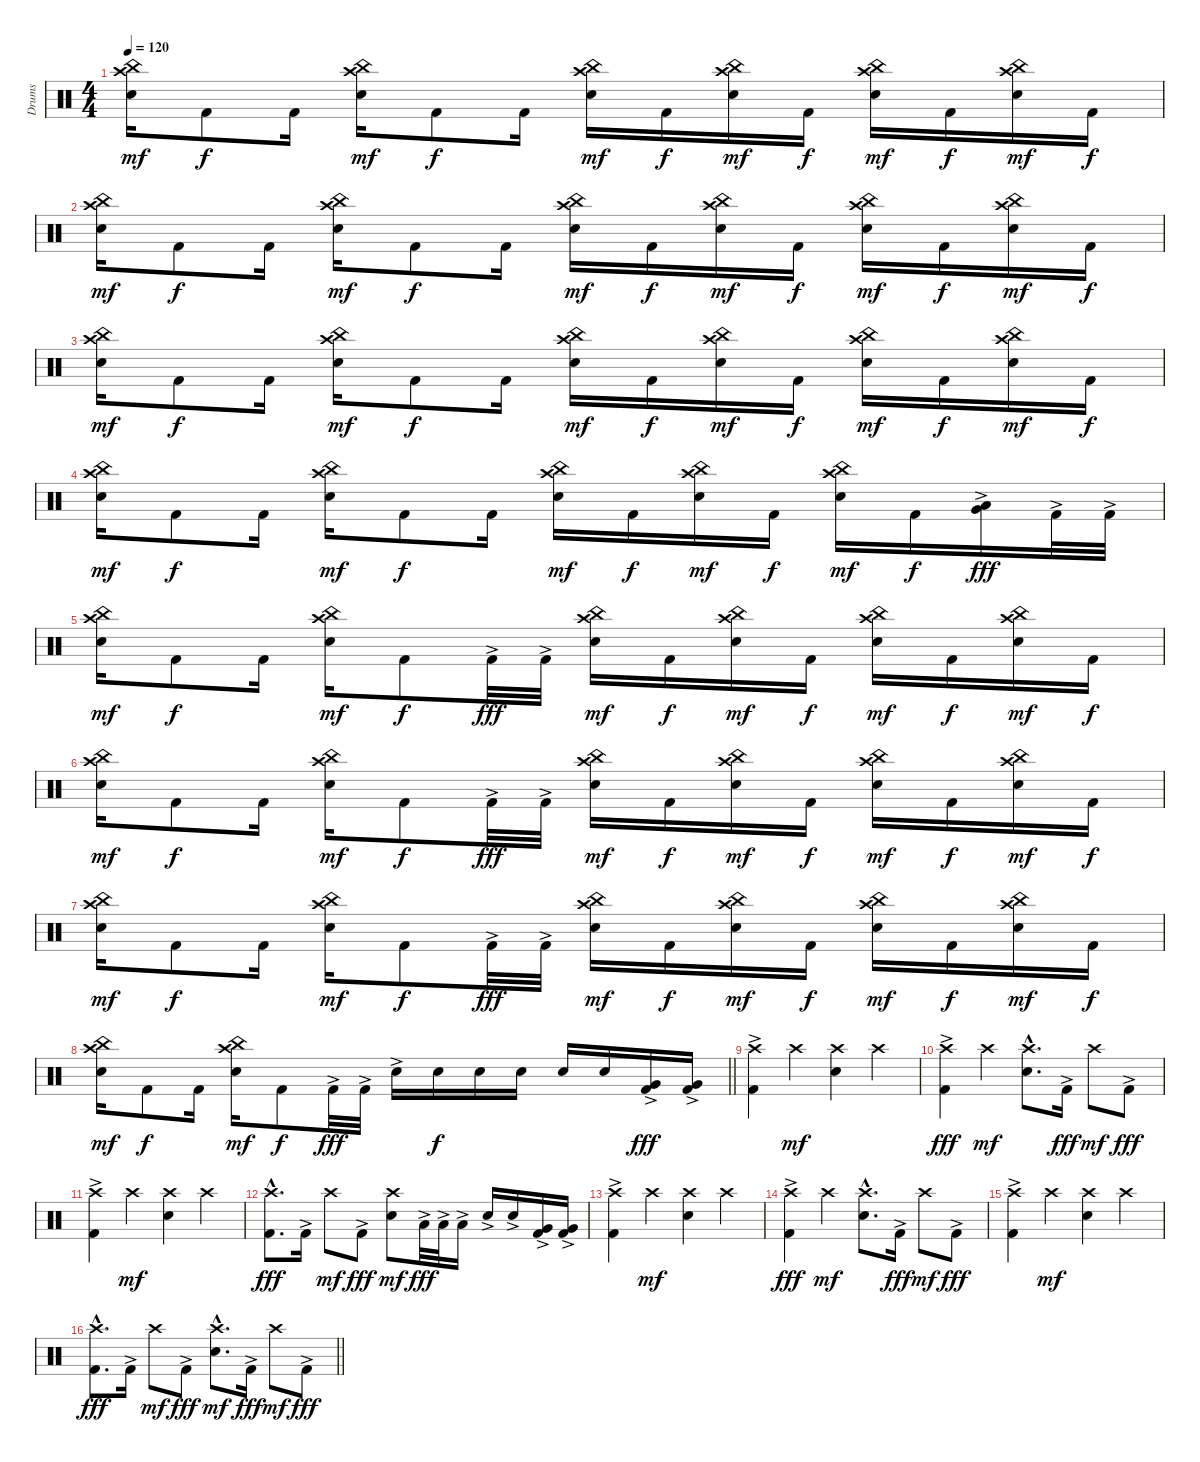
\track ("Drums" "Drums") {instrument percussion}
\staff {score}
\articulation defaults
\ts (4 4)
\tempo 120
\clef neutral
\ks c
("Crash high (hit)" "China (hit)" "Snare (hit) 2").16{dy mf} "Kick (hit) 2".8{dy f} "Kick (hit) 2".16 ("Crash high (hit)" "China (hit)" "Snare (hit) 2").16{dy mf} "Kick (hit) 2".8{dy f} "Kick (hit) 2".16 ("Crash high (hit)" "China (hit)" "Snare (hit) 2").16{dy mf} "Kick (hit) 2".16{dy f} ("Crash high (hit)" "China (hit)" "Snare (hit) 2").16{dy mf} "Kick (hit) 2".16{dy f} ("Crash high (hit)" "China (hit)" "Snare (hit) 2").16{dy mf} "Kick (hit) 2".16{dy f} ("Crash high (hit)" "China (hit)" "Snare (hit) 2").16{dy mf} "Kick (hit) 2".16{dy f} |
("Crash high (hit)" "China (hit)" "Snare (hit) 2").16{dy mf} "Kick (hit) 2".8{dy f} "Kick (hit) 2".16 ("Crash high (hit)" "China (hit)" "Snare (hit) 2").16{dy mf} "Kick (hit) 2".8{dy f} "Kick (hit) 2".16 ("Crash high (hit)" "China (hit)" "Snare (hit) 2").16{dy mf} "Kick (hit) 2".16{dy f} ("Crash high (hit)" "China (hit)" "Snare (hit) 2").16{dy mf} "Kick (hit) 2".16{dy f} ("Crash high (hit)" "China (hit)" "Snare (hit) 2").16{dy mf} "Kick (hit) 2".16{dy f} ("Crash high (hit)" "China (hit)" "Snare (hit) 2").16{dy mf} "Kick (hit) 2".16{dy f} |
("Crash high (hit)" "China (hit)" "Snare (hit) 2").16{dy mf} "Kick (hit) 2".8{dy f} "Kick (hit) 2".16 ("Crash high (hit)" "China (hit)" "Snare (hit) 2").16{dy mf} "Kick (hit) 2".8{dy f} "Kick (hit) 2".16 ("Crash high (hit)" "China (hit)" "Snare (hit) 2").16{dy mf} "Kick (hit) 2".16{dy f} ("Crash high (hit)" "China (hit)" "Snare (hit) 2").16{dy mf} "Kick (hit) 2".16{dy f} ("Crash high (hit)" "China (hit)" "Snare (hit) 2").16{dy mf} "Kick (hit) 2".16{dy f} ("Crash high (hit)" "China (hit)" "Snare (hit) 2").16{dy mf} "Kick (hit) 2".16{dy f} |
("Crash high (hit)" "China (hit)" "Snare (hit) 2").16{dy mf} "Kick (hit) 2".8{dy f} "Kick (hit) 2".16 ("Crash high (hit)" "China (hit)" "Snare (hit) 2").16{dy mf} "Kick (hit) 2".8{dy f} "Kick (hit) 2".16 ("Crash high (hit)" "China (hit)" "Snare (hit) 2").16{dy mf} "Kick (hit) 2".16{dy f} ("Crash high (hit)" "China (hit)" "Snare (hit) 2").16{dy mf} "Kick (hit) 2".16{dy f} ("Crash high (hit)" "China (hit)" "Snare (hit) 2").16{dy mf} "Kick (hit) 2".16{dy f} ("Low Tom (hit)"{ac} "Very Low Tom (hit)"{ac}).16{dy fff} "Kick (hit) 2"{ac}.32 "Kick (hit) 2"{ac}.32 |
("Crash high (hit)" "China (hit)" "Snare (hit) 2").16{dy mf} "Kick (hit) 2".8{dy f} "Kick (hit) 2".16 ("Crash high (hit)" "China (hit)" "Snare (hit) 2").16{dy mf} "Kick (hit) 2".8{dy f} "Kick (hit) 2"{ac}.32{dy fff} "Kick (hit) 2"{ac}.32 ("Crash high (hit)" "China (hit)" "Snare (hit) 2").16{dy mf} "Kick (hit) 2".16{dy f} ("Crash high (hit)" "China (hit)" "Snare (hit) 2").16{dy mf} "Kick (hit) 2".16{dy f} ("Crash high (hit)" "China (hit)" "Snare (hit) 2").16{dy mf} "Kick (hit) 2".16{dy f} ("Crash high (hit)" "China (hit)" "Snare (hit) 2").16{dy mf} "Kick (hit) 2".16{dy f} |
("Crash high (hit)" "China (hit)" "Snare (hit) 2").16{dy mf} "Kick (hit) 2".8{dy f} "Kick (hit) 2".16 ("Crash high (hit)" "China (hit)" "Snare (hit) 2").16{dy mf} "Kick (hit) 2".8{dy f} "Kick (hit) 2"{ac}.32{dy fff} "Kick (hit) 2"{ac}.32 ("Crash high (hit)" "China (hit)" "Snare (hit) 2").16{dy mf} "Kick (hit) 2".16{dy f} ("Crash high (hit)" "China (hit)" "Snare (hit) 2").16{dy mf} "Kick (hit) 2".16{dy f} ("Crash high (hit)" "China (hit)" "Snare (hit) 2").16{dy mf} "Kick (hit) 2".16{dy f} ("Crash high (hit)" "China (hit)" "Snare (hit) 2").16{dy mf} "Kick (hit) 2".16{dy f} |
("Crash high (hit)" "China (hit)" "Snare (hit) 2").16{dy mf} "Kick (hit) 2".8{dy f} "Kick (hit) 2".16 ("Crash high (hit)" "China (hit)" "Snare (hit) 2").16{dy mf} "Kick (hit) 2".8{dy f} "Kick (hit) 2"{ac}.32{dy fff} "Kick (hit) 2"{ac}.32 ("Crash high (hit)" "China (hit)" "Snare (hit) 2").16{dy mf} "Kick (hit) 2".16{dy f} ("Crash high (hit)" "China (hit)" "Snare (hit) 2").16{dy mf} "Kick (hit) 2".16{dy f} ("Crash high (hit)" "China (hit)" "Snare (hit) 2").16{dy mf} "Kick (hit) 2".16{dy f} ("Crash high (hit)" "China (hit)" "Snare (hit) 2").16{dy mf} "Kick (hit) 2".16{dy f} |
\barLineRight lightlight
("Crash high (hit)" "China (hit)" "Snare (hit) 2").16{dy mf} "Kick (hit) 2".8{dy f} "Kick (hit) 2".16 ("Crash high (hit)" "China (hit)" "Snare (hit) 2").16{dy mf} "Kick (hit) 2".8{dy f} "Kick (hit) 2"{ac}.32{dy fff} "Kick (hit) 2"{ac}.32 "Snare (hit) 2"{ac}.16 "Snare (hit) 2".16{dy f} "Snare (hit) 2".16 "Snare (hit) 2".16 "Snare (hit) 2".16 "Snare (hit) 2".16 ("Very Low Tom (hit)"{ac} "Kick (hit) 2"{ac}).16{dy fff} ("Very Low Tom (hit)"{ac} "Kick (hit) 2"{ac}).16 |
("Crash high (hit)"{ac} "Kick (hit) 2"{ac}).4 "Crash high (hit)".4{dy mf} ("Crash high (hit)" "Snare (hit) 2").4 "Crash high (hit)".4 |
("Crash high (hit)" "Kick (hit) 2"{ac}).4{dy fff} "Crash high (hit)".4{dy mf} ("Crash high (hit)"{hac} "Snare (hit) 2"{hac}).8{d} "Kick (hit) 2"{ac}.16{dy fff} "Crash high (hit)".8{dy mf} "Kick (hit) 2"{ac}.8{dy fff} |
("Crash high (hit)" "Kick (hit) 2"{ac}).4 "Crash high (hit)".4{dy mf} ("Crash high (hit)" "Snare (hit) 2").4 "Crash high (hit)".4 |
("Crash high (hit)"{hac} "Kick (hit) 2"{hac}).8{d dy fff} "Kick (hit) 2"{ac}.16 "Crash high (hit)".8{dy mf} "Kick (hit) 2"{ac}.8{dy fff} ("Crash high (hit)" "Snare (hit) 2").8{dy mf} "Low Tom (hit)"{ac}.32{dy fff} "Low Tom (hit)"{ac}.32 "Low Tom (hit)"{ac}.16 "Snare (hit) 2"{ac}.16 "Snare (hit) 2"{ac}.16 ("Very Low Tom (hit)"{ac} "Kick (hit) 2"{ac}).16 ("Very Low Tom (hit)"{ac} "Kick (hit) 2"{ac}).16 |
("Crash high (hit)"{ac} "Kick (hit) 2"{ac}).4 "Crash high (hit)".4{dy mf} ("Crash high (hit)" "Snare (hit) 2").4 "Crash high (hit)".4 |
("Crash high (hit)" "Kick (hit) 2"{ac}).4{dy fff} "Crash high (hit)".4{dy mf} ("Crash high (hit)"{hac} "Snare (hit) 2"{hac}).8{d} "Kick (hit) 2"{ac}.16{dy fff} "Crash high (hit)".8{dy mf} "Kick (hit) 2"{ac}.8{dy fff} |
("Crash high (hit)" "Kick (hit) 2"{ac}).4 "Crash high (hit)".4{dy mf} ("Crash high (hit)" "Snare (hit) 2").4 "Crash high (hit)".4 |
\barLineRight lightlight
("Crash high (hit)"{hac} "Kick (hit) 2"{hac}).8{d dy fff} "Kick (hit) 2"{ac}.16 "Crash high (hit)".8{dy mf} "Kick (hit) 2"{ac}.8{dy fff} ("Crash high (hit)"{hac} "Snare (hit) 2"{hac}).8{d dy mf} "Kick (hit) 2"{ac}.16{dy fff} "Crash high (hit)".8{dy mf} "Kick (hit) 2"{ac}.8{dy fff}
